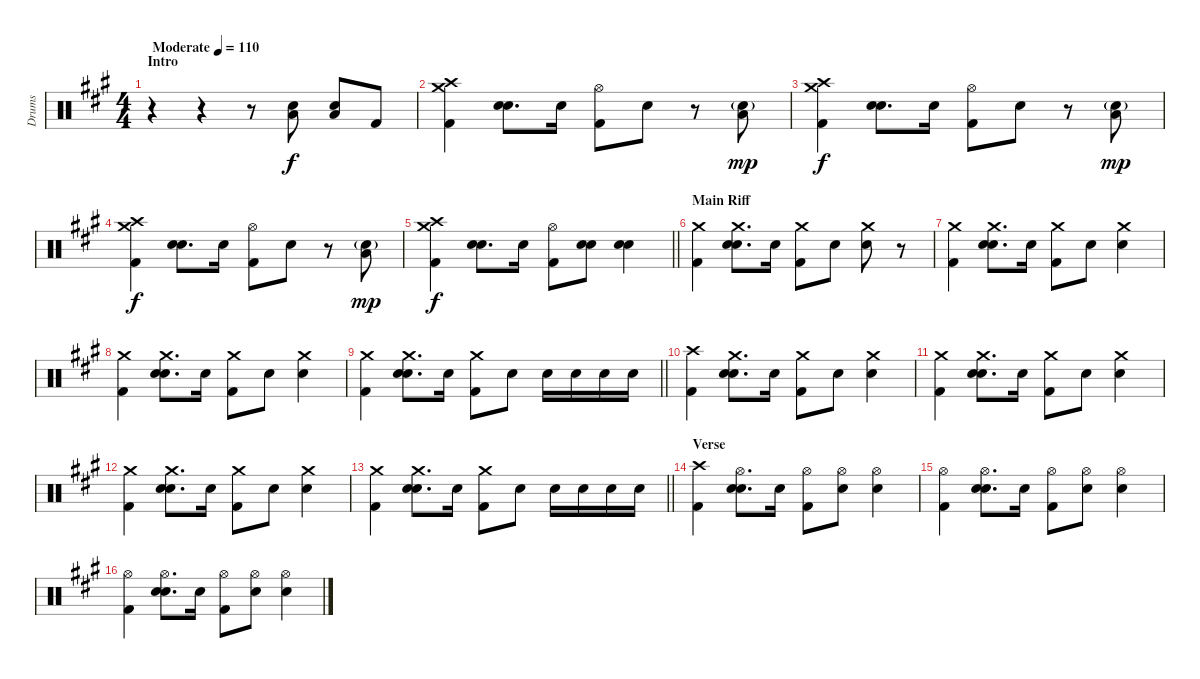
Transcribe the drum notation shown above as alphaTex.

\track ("Drums" "Drums") {instrument percussion}
\staff {score}
\articulation defaults
\ts (4 4)
\section ("" "Intro")
\tempo (110 "Moderate")
\clef neutral
\ks f#minor
r.4{dy f} r.4 r.8 ("Low Tom (hit)" "Snare (hit) 2").8 ("Low Tom (hit)" "Snare (hit) 2").8 "Kick (hit) 2".8 |
("Crash high (hit)" "Crash medium (hit)" "Kick (hit) 2").4 ("Snare (hit) 2" "Snare (hit) 2").8{d} "Snare (hit) 2".16 ("Hi-Hat (open)" "Kick (hit) 2").8 "Snare (hit) 2".8 r.8 ("Snare (hit) 2"{g} "Low Tom (hit)").8{dy mp} |
("Crash high (hit)" "Crash medium (hit)" "Kick (hit) 2").4{dy f} ("Snare (hit) 2" "Snare (hit) 2").8{d} "Snare (hit) 2".16 ("Hi-Hat (open)" "Kick (hit) 2").8 "Snare (hit) 2".8 r.8 ("Snare (hit) 2"{g} "Low Tom (hit)").8{dy mp} |
("Crash high (hit)" "Crash medium (hit)" "Kick (hit) 2").4{dy f} ("Snare (hit) 2" "Snare (hit) 2").8{d} "Snare (hit) 2".16 ("Hi-Hat (open)" "Kick (hit) 2").8 "Snare (hit) 2".8 r.8 ("Snare (hit) 2"{g} "Low Tom (hit)").8{dy mp} |
\barLineRight lightlight
("Crash high (hit)" "Crash medium (hit)" "Kick (hit) 2").4{dy f} ("Snare (hit) 2" "Snare (hit) 2").8{d} "Snare (hit) 2".16 ("Hi-Hat (open)" "Kick (hit) 2").8 ("Snare (hit) 2" "Snare (hit) 2").8 ("Snare (hit) 2" "Snare (hit) 2").4 |
\section ("" "Main Riff")
("Crash medium (hit)" "Kick (hit) 2").4 ("Crash medium (hit)" "Snare (hit) 2" "Snare (hit) 2").8{d} "Snare (hit) 2".16 ("Crash medium (hit)" "Kick (hit) 2").8 "Snare (hit) 2".8 ("Crash medium (hit)" "Snare (hit) 2").8 r.8 |
("Crash medium (hit)" "Kick (hit) 2").4 ("Crash medium (hit)" "Snare (hit) 2" "Snare (hit) 2").8{d} "Snare (hit) 2".16 ("Crash medium (hit)" "Kick (hit) 2").8 "Snare (hit) 2".8 ("Crash medium (hit)" "Snare (hit) 2").4 |
("Crash medium (hit)" "Kick (hit) 2").4 ("Crash medium (hit)" "Snare (hit) 2" "Snare (hit) 2").8{d} "Snare (hit) 2".16 ("Crash medium (hit)" "Kick (hit) 2").8 "Snare (hit) 2".8 ("Crash medium (hit)" "Snare (hit) 2").4 |
\barLineRight lightlight
("Crash medium (hit)" "Kick (hit) 2").4 ("Crash medium (hit)" "Snare (hit) 2" "Snare (hit) 2").8{d} "Snare (hit) 2".16 ("Crash medium (hit)" "Kick (hit) 2").8 "Snare (hit) 2".8 "Snare (hit) 2".16 "Snare (hit) 2".16 "Snare (hit) 2".16 "Snare (hit) 2".16 |
\section ("" "")
("Crash high (hit)" "Kick (hit) 2").4 ("Crash medium (hit)" "Snare (hit) 2" "Snare (hit) 2").8{d} "Snare (hit) 2".16 ("Crash medium (hit)" "Kick (hit) 2").8 "Snare (hit) 2".8 ("Crash medium (hit)" "Snare (hit) 2").4 |
("Crash medium (hit)" "Kick (hit) 2").4 ("Crash medium (hit)" "Snare (hit) 2" "Snare (hit) 2").8{d} "Snare (hit) 2".16 ("Crash medium (hit)" "Kick (hit) 2").8 "Snare (hit) 2".8 ("Crash medium (hit)" "Snare (hit) 2").4 |
("Crash medium (hit)" "Kick (hit) 2").4 ("Crash medium (hit)" "Snare (hit) 2" "Snare (hit) 2").8{d} "Snare (hit) 2".16 ("Crash medium (hit)" "Kick (hit) 2").8 "Snare (hit) 2".8 ("Crash medium (hit)" "Snare (hit) 2").4 |
\barLineRight lightlight
("Crash medium (hit)" "Kick (hit) 2").4 ("Crash medium (hit)" "Snare (hit) 2" "Snare (hit) 2").8{d} "Snare (hit) 2".16 ("Crash medium (hit)" "Kick (hit) 2").8 "Snare (hit) 2".8 "Snare (hit) 2".16 "Snare (hit) 2".16 "Snare (hit) 2".16 "Snare (hit) 2".16 |
\section ("" "Verse")
("Crash high (hit)" "Kick (hit) 2").4 ("Hi-Hat (open)" "Snare (hit) 2" "Snare (hit) 2").8{d} "Snare (hit) 2".16 ("Hi-Hat (open)" "Kick (hit) 2").8 ("Hi-Hat (open)" "Snare (hit) 2").8 ("Hi-Hat (open)" "Snare (hit) 2").4 |
("Hi-Hat (open)" "Kick (hit) 2").4 ("Hi-Hat (open)" "Snare (hit) 2" "Snare (hit) 2").8{d} "Snare (hit) 2".16 ("Hi-Hat (open)" "Kick (hit) 2").8 ("Hi-Hat (open)" "Snare (hit) 2").8 ("Hi-Hat (open)" "Snare (hit) 2").4 |
("Hi-Hat (open)" "Kick (hit) 2").4 ("Hi-Hat (open)" "Snare (hit) 2" "Snare (hit) 2").8{d} "Snare (hit) 2".16 ("Hi-Hat (open)" "Kick (hit) 2").8 ("Hi-Hat (open)" "Snare (hit) 2").8 ("Hi-Hat (open)" "Snare (hit) 2").4
